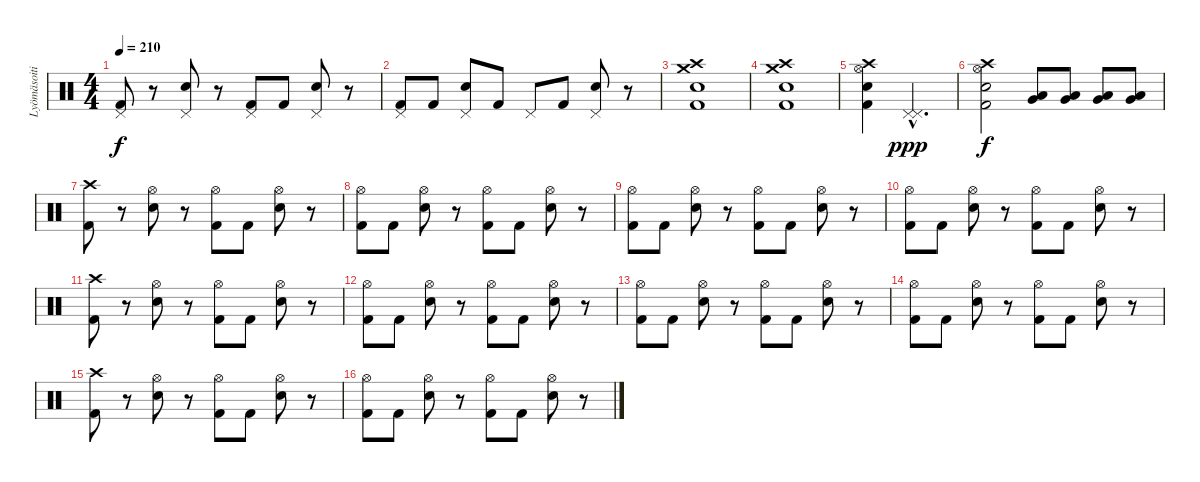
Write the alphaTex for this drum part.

\track ("Lyömäsoitin" "Lyömäsoiti") {instrument percussion}
\staff {score}
\articulation defaults
\ts (4 4)
\tempo 210
\clef neutral
\ks c
("Pedal Hi-Hat (hit)" "Kick (hit) 2").8{dy f} r.8 ("Pedal Hi-Hat (hit)" "Electric Snare (hit)").8 r.8 ("Pedal Hi-Hat (hit)" "Kick (hit) 2").8 "Kick (hit) 2".8 ("Pedal Hi-Hat (hit)" "Electric Snare (hit)").8 r.8 |
("Pedal Hi-Hat (hit)" "Kick (hit) 2").8 "Kick (hit) 2".8 ("Pedal Hi-Hat (hit)" "Electric Snare (hit)").8 "Kick (hit) 2".8 "Pedal Hi-Hat (hit)".8 "Kick (hit) 2".8 ("Pedal Hi-Hat (hit)" "Electric Snare (hit)").8 r.8 |
("Crash high (hit)" "Crash medium (hit)" "Electric Snare (hit)" "Kick (hit) 2").1 |
("Crash high (hit)" "Crash medium (hit)" "Electric Snare (hit)" "Kick (hit) 2").1 |
("Crash high (hit)" "Hi-Hat (open)" "Electric Snare (hit)" "Kick (hit) 2").4 ("Pedal Hi-Hat (hit)"{hac} "Pedal Hi-Hat (hit)"{hac}).2{d dy ppp} |
("Crash high (hit)" "Hi-Hat (open)" "Electric Snare (hit)" "Kick (hit) 2").2{dy f} ("Very Low Tom (hit)" "Low Floor Tom (hit)").8 ("Very Low Tom (hit)" "Low Floor Tom (hit)").8 ("Very Low Tom (hit)" "Low Floor Tom (hit)").8 ("Very Low Tom (hit)" "Low Floor Tom (hit)").8 |
("Crash high (hit)" "Kick (hit) 2").8 r.8 ("Hi-Hat (open)" "Electric Snare (hit)").8 r.8 ("Hi-Hat (open)" "Kick (hit) 2").8 "Kick (hit) 2".8 ("Hi-Hat (open)" "Electric Snare (hit)").8 r.8 |
("Hi-Hat (open)" "Kick (hit) 2").8 "Kick (hit) 2".8 ("Hi-Hat (open)" "Electric Snare (hit)").8 r.8 ("Hi-Hat (open)" "Kick (hit) 2").8 "Kick (hit) 2".8 ("Hi-Hat (open)" "Electric Snare (hit)").8 r.8 |
("Hi-Hat (open)" "Kick (hit) 2").8 "Kick (hit) 2".8 ("Hi-Hat (open)" "Electric Snare (hit)").8 r.8 ("Hi-Hat (open)" "Kick (hit) 2").8 "Kick (hit) 2".8 ("Hi-Hat (open)" "Electric Snare (hit)").8 r.8 |
("Hi-Hat (open)" "Kick (hit) 2").8 "Kick (hit) 2".8 ("Hi-Hat (open)" "Electric Snare (hit)").8 r.8 ("Hi-Hat (open)" "Kick (hit) 2").8 "Kick (hit) 2".8 ("Hi-Hat (open)" "Electric Snare (hit)").8 r.8 |
("Crash high (hit)" "Kick (hit) 2").8 r.8 ("Hi-Hat (open)" "Electric Snare (hit)").8 r.8 ("Hi-Hat (open)" "Kick (hit) 2").8 "Kick (hit) 2".8 ("Hi-Hat (open)" "Electric Snare (hit)").8 r.8 |
("Hi-Hat (open)" "Kick (hit) 2").8 "Kick (hit) 2".8 ("Hi-Hat (open)" "Electric Snare (hit)").8 r.8 ("Hi-Hat (open)" "Kick (hit) 2").8 "Kick (hit) 2".8 ("Hi-Hat (open)" "Electric Snare (hit)").8 r.8 |
("Hi-Hat (open)" "Kick (hit) 2").8 "Kick (hit) 2".8 ("Hi-Hat (open)" "Electric Snare (hit)").8 r.8 ("Hi-Hat (open)" "Kick (hit) 2").8 "Kick (hit) 2".8 ("Hi-Hat (open)" "Electric Snare (hit)").8 r.8 |
("Hi-Hat (open)" "Kick (hit) 2").8 "Kick (hit) 2".8 ("Hi-Hat (open)" "Electric Snare (hit)").8 r.8 ("Hi-Hat (open)" "Kick (hit) 2").8 "Kick (hit) 2".8 ("Hi-Hat (open)" "Electric Snare (hit)").8 r.8 |
("Crash high (hit)" "Kick (hit) 2").8 r.8 ("Hi-Hat (open)" "Electric Snare (hit)").8 r.8 ("Hi-Hat (open)" "Kick (hit) 2").8 "Kick (hit) 2".8 ("Hi-Hat (open)" "Electric Snare (hit)").8 r.8 |
("Hi-Hat (open)" "Kick (hit) 2").8 "Kick (hit) 2".8 ("Hi-Hat (open)" "Electric Snare (hit)").8 r.8 ("Hi-Hat (open)" "Kick (hit) 2").8 "Kick (hit) 2".8 ("Hi-Hat (open)" "Electric Snare (hit)").8 r.8
